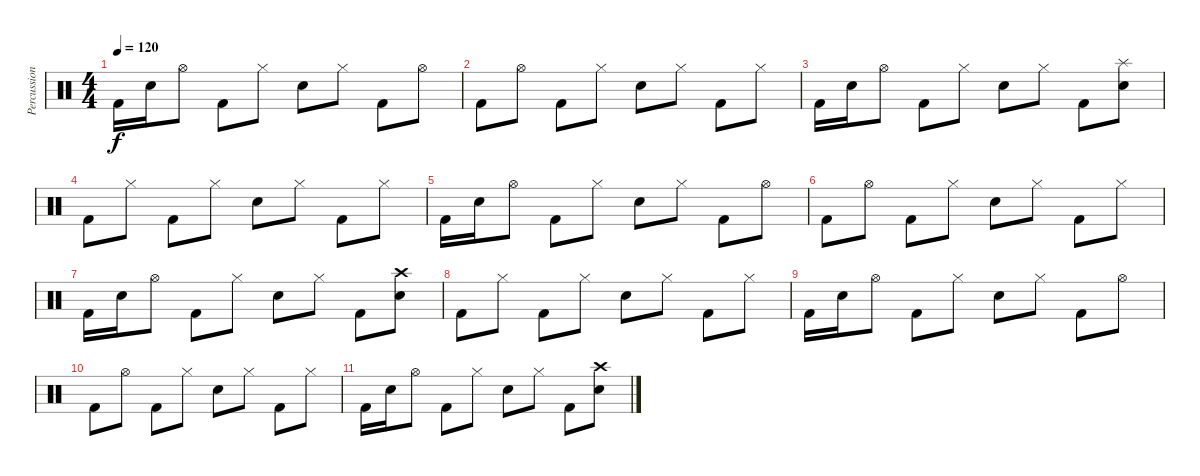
\track ("Percussion" "Percussion") {instrument percussion}
\staff {score}
\articulation defaults
\ts (4 4)
\tempo 120
\clef neutral
\ks c "Kick (hit) 2".16{dy f} "Snare (hit) 2".16 "Hi-Hat (open)".8 "Kick (hit) 2".8 "Hi-Hat (closed)".8 "Snare (hit) 2".8 "Hi-Hat (closed)".8 "Kick (hit) 2".8 "Hi-Hat (open)".8
|
"Kick (hit) 2".8 "Hi-Hat (open)".8 "Kick (hit) 2".8 "Hi-Hat (closed)".8 "Snare (hit) 2".8 "Hi-Hat (closed)".8 "Kick (hit) 2".8 "Hi-Hat (closed)".8 |
"Kick (hit) 2".16 "Snare (hit) 2".16 "Hi-Hat (open)".8 "Kick (hit) 2".8 "Hi-Hat (closed)".8 "Snare (hit) 2".8 "Hi-Hat (closed)".8 "Kick (hit) 2".8 ("Splash (hit)" "Snare (hit) 2").8 |
"Kick (hit) 2".8{volume 12} "Hi-Hat (closed)".8 "Kick (hit) 2".8 "Hi-Hat (closed)".8 "Snare (hit) 2".8 "Hi-Hat (closed)".8 "Kick (hit) 2".8 "Hi-Hat (closed)".8 |
"Kick (hit) 2".16 "Snare (hit) 2".16 "Hi-Hat (open)".8 "Kick (hit) 2".8 "Hi-Hat (closed)".8 "Snare (hit) 2".8 "Hi-Hat (closed)".8 "Kick (hit) 2".8 "Hi-Hat (open)".8 |
"Kick (hit) 2".8 "Hi-Hat (open)".8 "Kick (hit) 2".8 "Hi-Hat (closed)".8 "Snare (hit) 2".8 "Hi-Hat (closed)".8 "Kick (hit) 2".8 "Hi-Hat (closed)".8 |
"Kick (hit) 2".16 "Snare (hit) 2".16 "Hi-Hat (open)".8 "Kick (hit) 2".8 "Hi-Hat (closed)".8 "Snare (hit) 2".8 "Hi-Hat (closed)".8 "Kick (hit) 2".8 ("Crash high (hit)" "Snare (hit) 2").8 |
"Kick (hit) 2".8{volume 10} "Hi-Hat (closed)".8 "Kick (hit) 2".8 "Hi-Hat (closed)".8 "Snare (hit) 2".8 "Hi-Hat (closed)".8 "Kick (hit) 2".8 "Hi-Hat (closed)".8 |
"Kick (hit) 2".16 "Snare (hit) 2".16 "Hi-Hat (open)".8 "Kick (hit) 2".8 "Hi-Hat (closed)".8 "Snare (hit) 2".8 "Hi-Hat (closed)".8 "Kick (hit) 2".8 "Hi-Hat (open)".8 |
"Kick (hit) 2".8 "Hi-Hat (open)".8 "Kick (hit) 2".8 "Hi-Hat (closed)".8 "Snare (hit) 2".8 "Hi-Hat (closed)".8 "Kick (hit) 2".8 "Hi-Hat (closed)".8 |
"Kick (hit) 2".16 "Snare (hit) 2".16 "Hi-Hat (open)".8 "Kick (hit) 2".8 "Hi-Hat (closed)".8 "Snare (hit) 2".8 "Hi-Hat (closed)".8 "Kick (hit) 2".8 ("Crash high (hit)" "Snare (hit) 2").8
